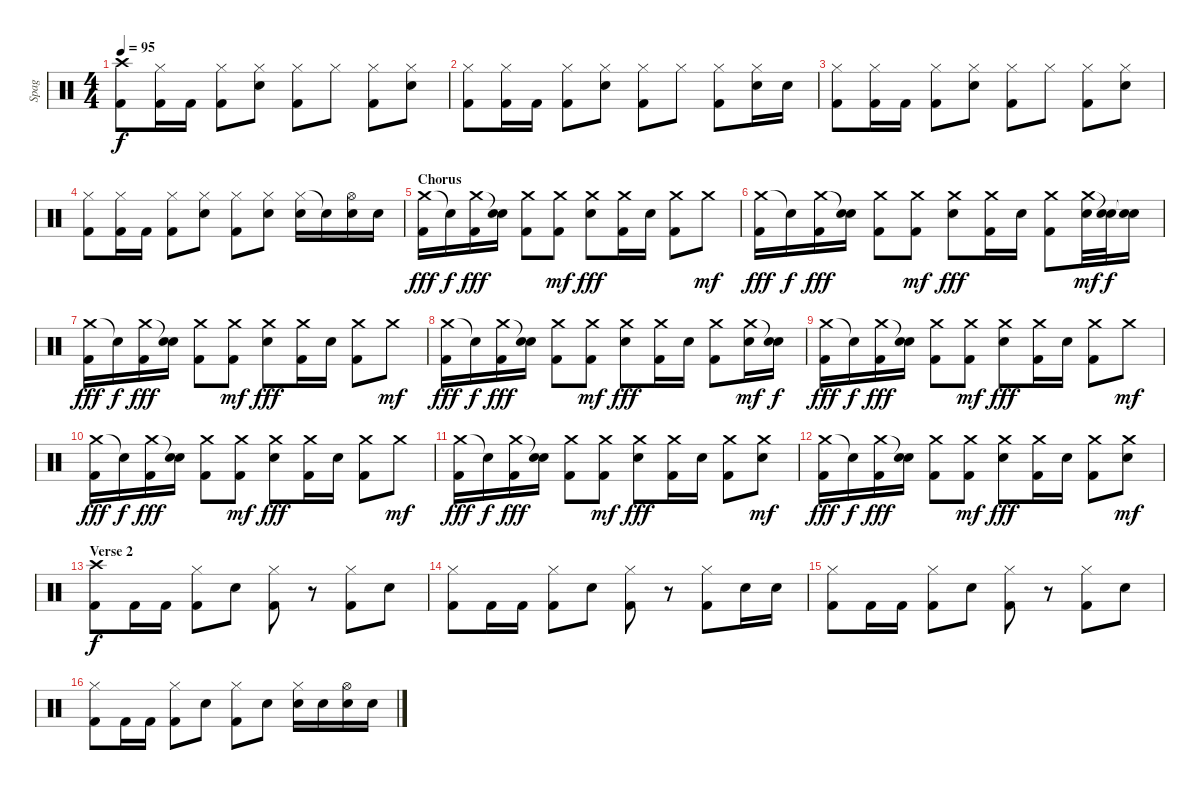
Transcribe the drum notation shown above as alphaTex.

\track ("Spag" "Spag") {instrument percussion}
\staff {score}
\articulation defaults
\ts (4 4)
\tempo 95
\clef neutral
\ks c
("Crash high (hit)" "Kick (hit) 2").8{dy f} ("Hi-Hat (closed)" "Kick (hit) 2").16 "Kick (hit) 2".16 ("Hi-Hat (closed)" "Kick (hit) 2").8 ("Hi-Hat (closed)" "Electric Snare (hit)").8 ("Hi-Hat (closed)" "Kick (hit) 2").8 "Hi-Hat (closed)".8 ("Hi-Hat (closed)" "Kick (hit) 2").8 ("Hi-Hat (closed)" "Electric Snare (hit)").8 |
("Hi-Hat (closed)" "Kick (hit) 2").8 ("Hi-Hat (closed)" "Kick (hit) 2").16 "Kick (hit) 2".16 ("Hi-Hat (closed)" "Kick (hit) 2").8 ("Hi-Hat (closed)" "Electric Snare (hit)").8 ("Hi-Hat (closed)" "Kick (hit) 2").8 "Hi-Hat (closed)".8 ("Hi-Hat (closed)" "Kick (hit) 2").8 ("Hi-Hat (closed)" "Electric Snare (hit)").16 "Electric Snare (hit)".16 |
("Hi-Hat (closed)" "Kick (hit) 2").8 ("Hi-Hat (closed)" "Kick (hit) 2").16 "Kick (hit) 2".16 ("Hi-Hat (closed)" "Kick (hit) 2").8 ("Hi-Hat (closed)" "Electric Snare (hit)").8 ("Hi-Hat (closed)" "Kick (hit) 2").8 "Hi-Hat (closed)".8 ("Hi-Hat (closed)" "Kick (hit) 2").8 ("Hi-Hat (closed)" "Electric Snare (hit)").8 |
("Hi-Hat (closed)" "Kick (hit) 2").8 ("Hi-Hat (closed)" "Kick (hit) 2").16 "Kick (hit) 2".16 ("Hi-Hat (closed)" "Kick (hit) 2").8 ("Hi-Hat (closed)" "Electric Snare (hit)").8 ("Hi-Hat (closed)" "Kick (hit) 2").8 ("Hi-Hat (closed)" "Electric Snare (hit)").8 ("Hi-Hat (closed)" "Electric Snare (hit)").16 "Electric Snare (hit)"{t}.16 ("Hi-Hat (open)" "Electric Snare (hit)").16 "Electric Snare (hit)".16 |
\section ("" "Chorus")
("Crash medium (hit)" "Kick (hit) 2").16{dy fff} "Snare (hit)"{t}.16{dy f} ("Crash medium (hit)" "Kick (hit) 2").16{dy fff} ("Snare (hit)"{t} "Electric Snare (hit)").16 ("Crash medium (hit)" "Kick (hit) 2").8 ("Crash medium (hit)" "Kick (hit) 2").8{dy mf} ("Crash medium (hit)" "Electric Snare (hit)").8{dy fff} ("Crash medium (hit)" "Kick (hit) 2").16 "Electric Snare (hit)".16 ("Crash medium (hit)" "Kick (hit) 2").8 "Crash medium (hit)".8{dy mf} |
("Crash medium (hit)" "Kick (hit) 2").16{dy fff} "Snare (hit)"{t}.16{dy f} ("Crash medium (hit)" "Kick (hit) 2").16{dy fff} ("Snare (hit)"{t} "Electric Snare (hit)").16 ("Crash medium (hit)" "Kick (hit) 2").8 ("Crash medium (hit)" "Kick (hit) 2").8{dy mf} ("Crash medium (hit)" "Electric Snare (hit)").8{dy fff} ("Crash medium (hit)" "Kick (hit) 2").16 "Electric Snare (hit)".16 ("Crash medium (hit)" "Kick (hit) 2").8 ("Crash medium (hit)" "Electric Snare (hit)").32{dy mf} ("Snare (hit)"{t} "Electric Snare (hit)").32{dy f} ("Snare (hit)"{t} "Electric Snare (hit)").16 |
("Crash medium (hit)" "Kick (hit) 2").16{dy fff} "Snare (hit)"{t}.16{dy f} ("Crash medium (hit)" "Kick (hit) 2").16{dy fff} ("Snare (hit)"{t} "Electric Snare (hit)").16 ("Crash medium (hit)" "Kick (hit) 2").8 ("Crash medium (hit)" "Kick (hit) 2").8{dy mf} ("Crash medium (hit)" "Electric Snare (hit)").8{dy fff} ("Crash medium (hit)" "Kick (hit) 2").16 "Electric Snare (hit)".16 ("Crash medium (hit)" "Kick (hit) 2").8 "Crash medium (hit)".8{dy mf} |
("Crash medium (hit)" "Kick (hit) 2").16{dy fff} "Snare (hit)"{t}.16{dy f} ("Crash medium (hit)" "Kick (hit) 2").16{dy fff} ("Snare (hit)"{t} "Electric Snare (hit)").16 ("Crash medium (hit)" "Kick (hit) 2").8 ("Crash medium (hit)" "Kick (hit) 2").8{dy mf} ("Crash medium (hit)" "Electric Snare (hit)").8{dy fff} ("Crash medium (hit)" "Kick (hit) 2").16 "Electric Snare (hit)".16 ("Crash medium (hit)" "Kick (hit) 2").8 ("Crash medium (hit)" "Electric Snare (hit)").16{dy mf} ("Snare (hit)"{t} "Electric Snare (hit)").16{dy f} |
("Crash medium (hit)" "Kick (hit) 2").16{dy fff} "Snare (hit)"{t}.16{dy f} ("Crash medium (hit)" "Kick (hit) 2").16{dy fff} ("Snare (hit)"{t} "Electric Snare (hit)").16 ("Crash medium (hit)" "Kick (hit) 2").8 ("Crash medium (hit)" "Kick (hit) 2").8{dy mf} ("Crash medium (hit)" "Electric Snare (hit)").8{dy fff} ("Crash medium (hit)" "Kick (hit) 2").16 "Electric Snare (hit)".16 ("Crash medium (hit)" "Kick (hit) 2").8 "Crash medium (hit)".8{dy mf} |
("Crash medium (hit)" "Kick (hit) 2").16{dy fff} "Snare (hit)"{t}.16{dy f} ("Crash medium (hit)" "Kick (hit) 2").16{dy fff} ("Snare (hit)"{t} "Electric Snare (hit)").16 ("Crash medium (hit)" "Kick (hit) 2").8 ("Crash medium (hit)" "Kick (hit) 2").8{dy mf} ("Crash medium (hit)" "Electric Snare (hit)").8{dy fff} ("Crash medium (hit)" "Kick (hit) 2").16 "Electric Snare (hit)".16 ("Crash medium (hit)" "Kick (hit) 2").8 "Crash medium (hit)".8{dy mf} |
("Crash medium (hit)" "Kick (hit) 2").16{dy fff} "Snare (hit)"{t}.16{dy f} ("Crash medium (hit)" "Kick (hit) 2").16{dy fff} ("Snare (hit)"{t} "Electric Snare (hit)").16 ("Crash medium (hit)" "Kick (hit) 2").8 ("Crash medium (hit)" "Kick (hit) 2").8{dy mf} ("Crash medium (hit)" "Electric Snare (hit)").8{dy fff} ("Crash medium (hit)" "Kick (hit) 2").16 "Electric Snare (hit)".16 ("Crash medium (hit)" "Kick (hit) 2").8 ("Crash medium (hit)" "Electric Snare (hit)").8{dy mf} |
("Crash medium (hit)" "Kick (hit) 2").16{dy fff} "Snare (hit)"{t}.16{dy f} ("Crash medium (hit)" "Kick (hit) 2").16{dy fff} ("Snare (hit)"{t} "Electric Snare (hit)").16 ("Crash medium (hit)" "Kick (hit) 2").8 ("Crash medium (hit)" "Kick (hit) 2").8{dy mf} ("Crash medium (hit)" "Electric Snare (hit)").8{dy fff} ("Crash medium (hit)" "Kick (hit) 2").16 "Electric Snare (hit)".16 ("Crash medium (hit)" "Kick (hit) 2").8 ("Crash medium (hit)" "Electric Snare (hit)").8{dy mf} |
\section ("" "Verse 2")
("Crash high (hit)" "Kick (hit) 2").8{dy f} "Kick (hit) 2".16 "Kick (hit) 2".16 ("Hi-Hat (closed)" "Kick (hit) 2").8 "Electric Snare (hit)".8 ("Hi-Hat (closed)" "Kick (hit) 2").8 r.8 ("Hi-Hat (closed)" "Kick (hit) 2").8 "Electric Snare (hit)".8 |
("Hi-Hat (closed)" "Kick (hit) 2").8 "Kick (hit) 2".16 "Kick (hit) 2".16 ("Hi-Hat (closed)" "Kick (hit) 2").8 "Electric Snare (hit)".8 ("Hi-Hat (closed)" "Kick (hit) 2").8 r.8 ("Hi-Hat (closed)" "Kick (hit) 2").8 "Electric Snare (hit)".16 "Electric Snare (hit)".16 |
("Hi-Hat (closed)" "Kick (hit) 2").8 "Kick (hit) 2".16 "Kick (hit) 2".16 ("Hi-Hat (closed)" "Kick (hit) 2").8 "Electric Snare (hit)".8 ("Hi-Hat (closed)" "Kick (hit) 2").8 r.8 ("Hi-Hat (closed)" "Kick (hit) 2").8 "Electric Snare (hit)".8 |
("Hi-Hat (closed)" "Kick (hit) 2").8 "Kick (hit) 2".16 "Kick (hit) 2".16 ("Hi-Hat (closed)" "Kick (hit) 2").8 "Electric Snare (hit)".8 ("Hi-Hat (closed)" "Kick (hit) 2").8 "Electric Snare (hit)".8 ("Hi-Hat (closed)" "Electric Snare (hit)").16 "Electric Snare (hit)".16 ("Hi-Hat (open)" "Electric Snare (hit)").16 "Electric Snare (hit)".16
